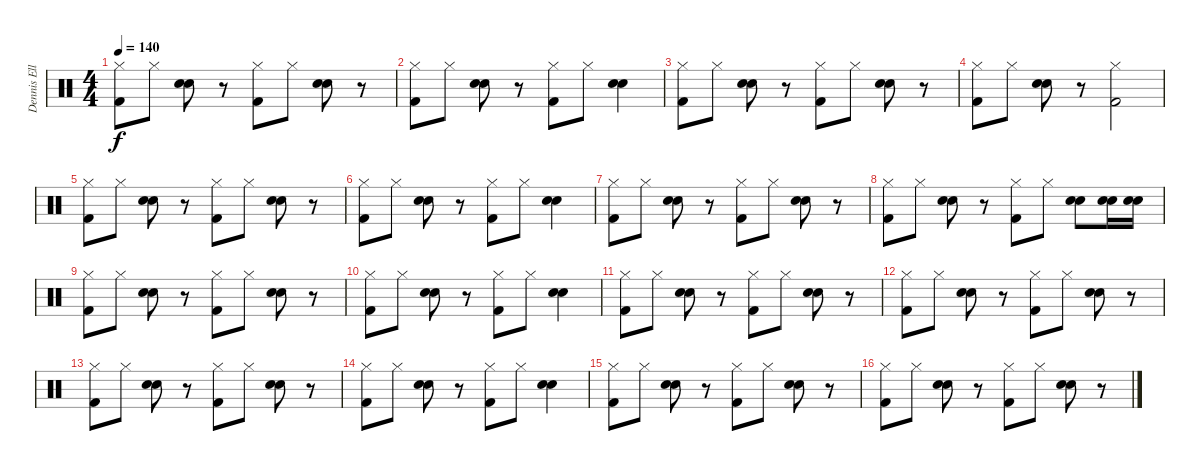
\track ("Dennis Elliott (Drums)" "Dennis Ell") {instrument percussion}
\staff {score}
\articulation defaults
\ts (4 4)
\tempo 140
\clef neutral
\ks c
("Hi-Hat (closed)" "Kick (hit) 2").8{dy f} "Hi-Hat (closed)".8 ("Electric Snare (hit)" "Snare (hit) 2").8 r.8 ("Hi-Hat (closed)" "Kick (hit) 2").8 "Hi-Hat (closed)".8 ("Electric Snare (hit)" "Snare (hit) 2").8 r.8 |
("Hi-Hat (closed)" "Kick (hit) 2").8 "Hi-Hat (closed)".8 ("Electric Snare (hit)" "Snare (hit) 2").8 r.8 ("Hi-Hat (closed)" "Kick (hit) 2").8 "Hi-Hat (closed)".8 ("Electric Snare (hit)" "Snare (hit) 2").4 |
("Hi-Hat (closed)" "Kick (hit) 2").8 "Hi-Hat (closed)".8 ("Electric Snare (hit)" "Snare (hit) 2").8 r.8 ("Hi-Hat (closed)" "Kick (hit) 2").8 "Hi-Hat (closed)".8 ("Electric Snare (hit)" "Snare (hit) 2").8 r.8 |
("Hi-Hat (closed)" "Kick (hit) 2").8 "Hi-Hat (closed)".8 ("Electric Snare (hit)" "Snare (hit) 2").8 r.8 ("Hi-Hat (closed)" "Kick (hit) 2").2 |
("Hi-Hat (closed)" "Kick (hit) 2").8 "Hi-Hat (closed)".8 ("Electric Snare (hit)" "Snare (hit) 2").8 r.8 ("Hi-Hat (closed)" "Kick (hit) 2").8 "Hi-Hat (closed)".8 ("Electric Snare (hit)" "Snare (hit) 2").8 r.8 |
("Hi-Hat (closed)" "Kick (hit) 2").8 "Hi-Hat (closed)".8 ("Electric Snare (hit)" "Snare (hit) 2").8 r.8 ("Hi-Hat (closed)" "Kick (hit) 2").8 "Hi-Hat (closed)".8 ("Electric Snare (hit)" "Snare (hit) 2").4 |
("Hi-Hat (closed)" "Kick (hit) 2").8 "Hi-Hat (closed)".8 ("Electric Snare (hit)" "Snare (hit) 2").8 r.8 ("Hi-Hat (closed)" "Kick (hit) 2").8 "Hi-Hat (closed)".8 ("Electric Snare (hit)" "Snare (hit) 2").8 r.8 |
("Hi-Hat (closed)" "Kick (hit) 2").8 "Hi-Hat (closed)".8 ("Electric Snare (hit)" "Snare (hit) 2").8 r.8 ("Hi-Hat (closed)" "Kick (hit) 2").8 "Hi-Hat (closed)".8 ("Electric Snare (hit)" "Snare (hit) 2").8 ("Electric Snare (hit)" "Snare (hit) 2").16 ("Electric Snare (hit)" "Snare (hit) 2").16 |
("Hi-Hat (closed)" "Kick (hit) 2").8 "Hi-Hat (closed)".8 ("Electric Snare (hit)" "Snare (hit) 2").8 r.8 ("Hi-Hat (closed)" "Kick (hit) 2").8 "Hi-Hat (closed)".8 ("Electric Snare (hit)" "Snare (hit) 2").8 r.8 |
("Hi-Hat (closed)" "Kick (hit) 2").8 "Hi-Hat (closed)".8 ("Electric Snare (hit)" "Snare (hit) 2").8 r.8 ("Hi-Hat (closed)" "Kick (hit) 2").8 "Hi-Hat (closed)".8 ("Electric Snare (hit)" "Snare (hit) 2").4 |
("Hi-Hat (closed)" "Kick (hit) 2").8 "Hi-Hat (closed)".8 ("Electric Snare (hit)" "Snare (hit) 2").8 r.8 ("Hi-Hat (closed)" "Kick (hit) 2").8 "Hi-Hat (closed)".8 ("Electric Snare (hit)" "Snare (hit) 2").8 r.8 |
("Hi-Hat (closed)" "Kick (hit) 2").8 "Hi-Hat (closed)".8 ("Electric Snare (hit)" "Snare (hit) 2").8 r.8 ("Hi-Hat (closed)" "Kick (hit) 2").8 "Hi-Hat (closed)".8 ("Electric Snare (hit)" "Snare (hit) 2").8 r.8 |
("Hi-Hat (closed)" "Kick (hit) 2").8 "Hi-Hat (closed)".8 ("Electric Snare (hit)" "Snare (hit) 2").8 r.8 ("Hi-Hat (closed)" "Kick (hit) 2").8 "Hi-Hat (closed)".8 ("Electric Snare (hit)" "Snare (hit) 2").8 r.8 |
("Hi-Hat (closed)" "Kick (hit) 2").8 "Hi-Hat (closed)".8 ("Electric Snare (hit)" "Snare (hit) 2").8 r.8 ("Hi-Hat (closed)" "Kick (hit) 2").8 "Hi-Hat (closed)".8 ("Electric Snare (hit)" "Snare (hit) 2").4 |
("Hi-Hat (closed)" "Kick (hit) 2").8 "Hi-Hat (closed)".8 ("Electric Snare (hit)" "Snare (hit) 2").8 r.8 ("Hi-Hat (closed)" "Kick (hit) 2").8 "Hi-Hat (closed)".8 ("Electric Snare (hit)" "Snare (hit) 2").8 r.8 |
("Hi-Hat (closed)" "Kick (hit) 2").8 "Hi-Hat (closed)".8 ("Electric Snare (hit)" "Snare (hit) 2").8 r.8 ("Hi-Hat (closed)" "Kick (hit) 2").8 "Hi-Hat (closed)".8 ("Electric Snare (hit)" "Snare (hit) 2").8 r.8
